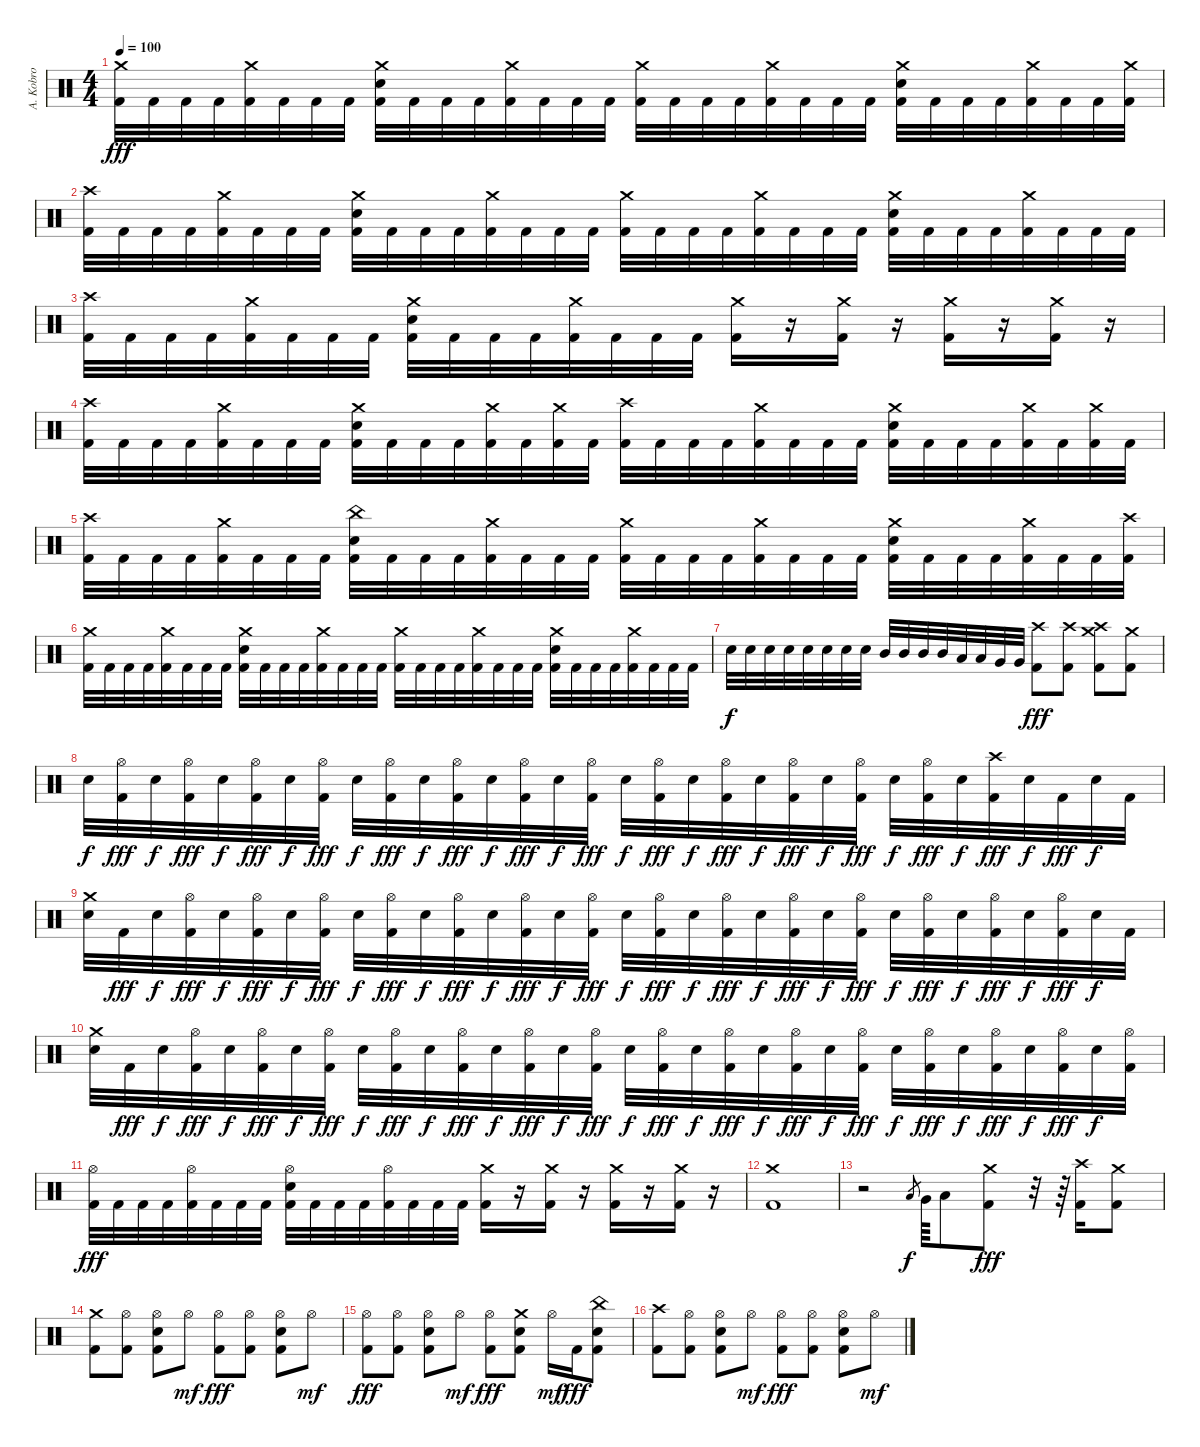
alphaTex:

\track ("A. Kobro" "A. Kobro") {instrument percussion}
\staff {score}
\articulation defaults
\ts (4 4)
\tempo 100
\clef neutral
\ks c
("Crash medium (hit)" "Kick (hit) 2").32{dy fff} "Kick (hit) 2".32 "Kick (hit) 2".32 "Kick (hit) 2".32 ("Crash medium (hit)" "Kick (hit) 2").32 "Kick (hit) 2".32 "Kick (hit) 2".32 "Kick (hit) 2".32 ("Crash medium (hit)" "Electric Snare (hit)" "Kick (hit) 2").32 "Kick (hit) 2".32 "Kick (hit) 2".32 "Kick (hit) 2".32 ("Crash medium (hit)" "Kick (hit) 2").32 "Kick (hit) 2".32 "Kick (hit) 2".32 "Kick (hit) 2".32 ("Crash medium (hit)" "Kick (hit) 2").32 "Kick (hit) 2".32 "Kick (hit) 2".32 "Kick (hit) 2".32 ("Crash medium (hit)" "Kick (hit) 2").32 "Kick (hit) 2".32 "Kick (hit) 2".32 "Kick (hit) 2".32 ("Crash medium (hit)" "Electric Snare (hit)" "Kick (hit) 2").32 "Kick (hit) 2".32 "Kick (hit) 2".32 "Kick (hit) 2".32 ("Crash medium (hit)" "Kick (hit) 2").32 "Kick (hit) 2".32 "Kick (hit) 2".32 ("Crash medium (hit)" "Kick (hit) 2").32 |
("Crash high (hit)" "Kick (hit) 2").32 "Kick (hit) 2".32 "Kick (hit) 2".32 "Kick (hit) 2".32 ("Crash medium (hit)" "Kick (hit) 2").32 "Kick (hit) 2".32 "Kick (hit) 2".32 "Kick (hit) 2".32 ("Crash medium (hit)" "Electric Snare (hit)" "Kick (hit) 2").32 "Kick (hit) 2".32 "Kick (hit) 2".32 "Kick (hit) 2".32 ("Crash medium (hit)" "Kick (hit) 2").32 "Kick (hit) 2".32 "Kick (hit) 2".32 "Kick (hit) 2".32 ("Crash medium (hit)" "Kick (hit) 2").32 "Kick (hit) 2".32 "Kick (hit) 2".32 "Kick (hit) 2".32 ("Crash medium (hit)" "Kick (hit) 2").32 "Kick (hit) 2".32 "Kick (hit) 2".32 "Kick (hit) 2".32 ("Crash medium (hit)" "Electric Snare (hit)" "Kick (hit) 2").32 "Kick (hit) 2".32 "Kick (hit) 2".32 "Kick (hit) 2".32 ("Crash medium (hit)" "Kick (hit) 2").32 "Kick (hit) 2".32 "Kick (hit) 2".32 "Kick (hit) 2".32 |
("Crash high (hit)" "Kick (hit) 2").32 "Kick (hit) 2".32 "Kick (hit) 2".32 "Kick (hit) 2".32 ("Crash medium (hit)" "Kick (hit) 2").32 "Kick (hit) 2".32 "Kick (hit) 2".32 "Kick (hit) 2".32 ("Crash medium (hit)" "Electric Snare (hit)" "Kick (hit) 2").32 "Kick (hit) 2".32 "Kick (hit) 2".32 "Kick (hit) 2".32 ("Crash medium (hit)" "Kick (hit) 2").32 "Kick (hit) 2".32 "Kick (hit) 2".32 "Kick (hit) 2".32 ("Crash medium (hit)" "Kick (hit) 2").16 r.16{volume 0} ("Crash medium (hit)" "Kick (hit) 2").16{volume 14} r.16{volume 0} ("Crash medium (hit)" "Kick (hit) 2").16{volume 14} r.16{volume 0} ("Crash medium (hit)" "Kick (hit) 2").16{volume 14} r.16{volume 0} |
("Crash high (hit)" "Kick (hit) 2").32{volume 14} "Kick (hit) 2".32 "Kick (hit) 2".32 "Kick (hit) 2".32 ("Crash medium (hit)" "Kick (hit) 2").32 "Kick (hit) 2".32 "Kick (hit) 2".32 "Kick (hit) 2".32 ("Crash medium (hit)" "Electric Snare (hit)" "Kick (hit) 2").32 "Kick (hit) 2".32 "Kick (hit) 2".32 "Kick (hit) 2".32 ("Crash medium (hit)" "Kick (hit) 2").32 "Kick (hit) 2".32 ("Crash medium (hit)" "Kick (hit) 2").32 "Kick (hit) 2".32 ("Crash high (hit)" "Kick (hit) 2").32 "Kick (hit) 2".32 "Kick (hit) 2".32 "Kick (hit) 2".32 ("Crash medium (hit)" "Kick (hit) 2").32 "Kick (hit) 2".32 "Kick (hit) 2".32 "Kick (hit) 2".32 ("Crash medium (hit)" "Electric Snare (hit)" "Kick (hit) 2").32 "Kick (hit) 2".32 "Kick (hit) 2".32 "Kick (hit) 2".32 ("Crash medium (hit)" "Kick (hit) 2").32 "Kick (hit) 2".32 ("Crash medium (hit)" "Kick (hit) 2").32 "Kick (hit) 2".32 |
("Crash high (hit)" "Kick (hit) 2").32 "Kick (hit) 2".32 "Kick (hit) 2".32 "Kick (hit) 2".32 ("Crash medium (hit)" "Kick (hit) 2").32 "Kick (hit) 2".32 "Kick (hit) 2".32 "Kick (hit) 2".32 ("China (hit)" "Electric Snare (hit)" "Kick (hit) 2").32 "Kick (hit) 2".32 "Kick (hit) 2".32 "Kick (hit) 2".32 ("Crash medium (hit)" "Kick (hit) 2").32 "Kick (hit) 2".32 "Kick (hit) 2".32 "Kick (hit) 2".32 ("Crash medium (hit)" "Kick (hit) 2").32 "Kick (hit) 2".32 "Kick (hit) 2".32 "Kick (hit) 2".32 ("Crash medium (hit)" "Kick (hit) 2").32 "Kick (hit) 2".32 "Kick (hit) 2".32 "Kick (hit) 2".32 ("Crash medium (hit)" "Electric Snare (hit)" "Kick (hit) 2").32 "Kick (hit) 2".32 "Kick (hit) 2".32 "Kick (hit) 2".32 ("Crash medium (hit)" "Kick (hit) 2").32 "Kick (hit) 2".32 "Kick (hit) 2".32 ("Crash high (hit)" "Kick (hit) 2").32 |
("Crash medium (hit)" "Kick (hit) 2").32 "Kick (hit) 2".32 "Kick (hit) 2".32 "Kick (hit) 2".32 ("Crash medium (hit)" "Kick (hit) 2").32 "Kick (hit) 2".32 "Kick (hit) 2".32 "Kick (hit) 2".32 ("Crash medium (hit)" "Electric Snare (hit)" "Kick (hit) 2").32 "Kick (hit) 2".32 "Kick (hit) 2".32 "Kick (hit) 2".32 ("Crash medium (hit)" "Kick (hit) 2").32 "Kick (hit) 2".32 "Kick (hit) 2".32 "Kick (hit) 2".32 ("Crash medium (hit)" "Kick (hit) 2").32 "Kick (hit) 2".32 "Kick (hit) 2".32 "Kick (hit) 2".32 ("Crash medium (hit)" "Kick (hit) 2").32 "Kick (hit) 2".32 "Kick (hit) 2".32 "Kick (hit) 2".32 ("Crash medium (hit)" "Electric Snare (hit)" "Kick (hit) 2").32 "Kick (hit) 2".32 "Kick (hit) 2".32 "Kick (hit) 2".32 ("Crash medium (hit)" "Kick (hit) 2").32 "Kick (hit) 2".32 "Kick (hit) 2".32 "Kick (hit) 2".32 |
"Electric Snare (hit)".32{dy f} "Electric Snare (hit)".32 "Electric Snare (hit)".32 "Electric Snare (hit)".32 "Electric Snare (hit)".32 "Electric Snare (hit)".32 "Electric Snare (hit)".32 "Electric Snare (hit)".32 "Mid Tom (hit)".32 "Mid Tom (hit)".32 "Mid Tom (hit)".32 "Mid Tom (hit)".32 "Low Tom (hit)".32 "Low Tom (hit)".32 "Very Low Tom (hit)".32 "Very Low Tom (hit)".32 ("Crash high (hit)" "Kick (hit) 2").8{dy fff} ("Crash high (hit)" "Kick (hit) 2").8 ("Crash medium (hit)" "Crash high (hit)" "Kick (hit) 2").8 ("Crash medium (hit)" "Kick (hit) 2").8 |
"Electric Snare (hit)".32{dy f} ("Hi-Hat (open)" "Kick (hit) 2").32{dy fff} "Electric Snare (hit)".32{dy f} ("Hi-Hat (open)" "Kick (hit) 2").32{dy fff} "Electric Snare (hit)".32{dy f} ("Hi-Hat (open)" "Kick (hit) 2").32{dy fff} "Electric Snare (hit)".32{dy f} ("Hi-Hat (open)" "Kick (hit) 2").32{dy fff} "Electric Snare (hit)".32{dy f} ("Hi-Hat (open)" "Kick (hit) 2").32{dy fff} "Electric Snare (hit)".32{dy f} ("Hi-Hat (open)" "Kick (hit) 2").32{dy fff} "Electric Snare (hit)".32{dy f} ("Hi-Hat (open)" "Kick (hit) 2").32{dy fff} "Electric Snare (hit)".32{dy f} ("Hi-Hat (open)" "Kick (hit) 2").32{dy fff} "Electric Snare (hit)".32{dy f} ("Hi-Hat (open)" "Kick (hit) 2").32{dy fff} "Electric Snare (hit)".32{dy f} ("Hi-Hat (open)" "Kick (hit) 2").32{dy fff} "Electric Snare (hit)".32{dy f} ("Hi-Hat (open)" "Kick (hit) 2").32{dy fff} "Electric Snare (hit)".32{dy f} ("Hi-Hat (open)" "Kick (hit) 2").32{dy fff} "Electric Snare (hit)".32{dy f} ("Hi-Hat (open)" "Kick (hit) 2").32{dy fff} "Electric Snare (hit)".32{dy f} ("Crash high (hit)" "Kick (hit) 2").32{dy fff} "Electric Snare (hit)".32{dy f} "Kick (hit) 2".32{dy fff} "Electric Snare (hit)".32{dy f} "Kick (hit) 2".32 |
("Crash medium (hit)" "Electric Snare (hit)").32 "Kick (hit) 2".32{dy fff} "Electric Snare (hit)".32{dy f} ("Hi-Hat (open)" "Kick (hit) 2").32{dy fff} "Electric Snare (hit)".32{dy f} ("Hi-Hat (open)" "Kick (hit) 2").32{dy fff} "Electric Snare (hit)".32{dy f} ("Hi-Hat (open)" "Kick (hit) 2").32{dy fff} "Electric Snare (hit)".32{dy f} ("Hi-Hat (open)" "Kick (hit) 2").32{dy fff} "Electric Snare (hit)".32{dy f} ("Hi-Hat (open)" "Kick (hit) 2").32{dy fff} "Electric Snare (hit)".32{dy f} ("Hi-Hat (open)" "Kick (hit) 2").32{dy fff} "Electric Snare (hit)".32{dy f} ("Hi-Hat (open)" "Kick (hit) 2").32{dy fff} "Electric Snare (hit)".32{dy f} ("Hi-Hat (open)" "Kick (hit) 2").32{dy fff} "Electric Snare (hit)".32{dy f} ("Hi-Hat (open)" "Kick (hit) 2").32{dy fff} "Electric Snare (hit)".32{dy f} ("Hi-Hat (open)" "Kick (hit) 2").32{dy fff} "Electric Snare (hit)".32{dy f} ("Hi-Hat (open)" "Kick (hit) 2").32{dy fff} "Electric Snare (hit)".32{dy f} ("Hi-Hat (open)" "Kick (hit) 2").32{dy fff} "Electric Snare (hit)".32{dy f} ("Hi-Hat (open)" "Kick (hit) 2").32{dy fff} "Electric Snare (hit)".32{dy f} ("Hi-Hat (open)" "Kick (hit) 2").32{dy fff} "Electric Snare (hit)".32{dy f} "Kick (hit) 2".32 |
("Crash medium (hit)" "Electric Snare (hit)").32 "Kick (hit) 2".32{dy fff} "Electric Snare (hit)".32{dy f} ("Hi-Hat (open)" "Kick (hit) 2").32{dy fff} "Electric Snare (hit)".32{dy f} ("Hi-Hat (open)" "Kick (hit) 2").32{dy fff} "Electric Snare (hit)".32{dy f} ("Hi-Hat (open)" "Kick (hit) 2").32{dy fff} "Electric Snare (hit)".32{dy f} ("Hi-Hat (open)" "Kick (hit) 2").32{dy fff} "Electric Snare (hit)".32{dy f} ("Hi-Hat (open)" "Kick (hit) 2").32{dy fff} "Electric Snare (hit)".32{dy f} ("Hi-Hat (open)" "Kick (hit) 2").32{dy fff} "Electric Snare (hit)".32{dy f} ("Hi-Hat (open)" "Kick (hit) 2").32{dy fff} "Electric Snare (hit)".32{dy f} ("Hi-Hat (open)" "Kick (hit) 2").32{dy fff} "Electric Snare (hit)".32{dy f} ("Hi-Hat (open)" "Kick (hit) 2").32{dy fff} "Electric Snare (hit)".32{dy f} ("Hi-Hat (open)" "Kick (hit) 2").32{dy fff} "Electric Snare (hit)".32{dy f} ("Hi-Hat (open)" "Kick (hit) 2").32{dy fff} "Electric Snare (hit)".32{dy f} ("Hi-Hat (open)" "Kick (hit) 2").32{dy fff} "Electric Snare (hit)".32{dy f} ("Hi-Hat (open)" "Kick (hit) 2").32{dy fff} "Electric Snare (hit)".32{dy f} ("Hi-Hat (open)" "Kick (hit) 2").32{dy fff} "Electric Snare (hit)".32{dy f} ("Hi-Hat (open)" "Kick (hit) 2").32 |
("Hi-Hat (open)" "Kick (hit) 2").32{dy fff} "Kick (hit) 2".32 "Kick (hit) 2".32 "Kick (hit) 2".32 ("Hi-Hat (open)" "Kick (hit) 2").32 "Kick (hit) 2".32 "Kick (hit) 2".32 "Kick (hit) 2".32 ("Hi-Hat (open)" "Electric Snare (hit)" "Kick (hit) 2").32 "Kick (hit) 2".32 "Kick (hit) 2".32 "Kick (hit) 2".32 ("Hi-Hat (open)" "Kick (hit) 2").32 "Kick (hit) 2".32 "Kick (hit) 2".32 "Kick (hit) 2".32 ("Crash medium (hit)" "Kick (hit) 2").16 r.16{volume 0} ("Crash medium (hit)" "Kick (hit) 2").16{volume 14} r.16{volume 0} ("Crash medium (hit)" "Kick (hit) 2").16{volume 14} r.16{volume 0} ("Crash medium (hit)" "Kick (hit) 2").16{volume 14} r.16{volume 0} |
("Crash medium (hit)" "Kick (hit) 2").1{volume 14} |
r.2 "Low Tom (hit)".8{gr dy f} "Very Low Tom (hit)".64 "Low Floor Tom (hit)".8 ("Crash medium (hit)" "Kick (hit) 2").8{dy fff} r.32 r.64 ("Crash high (hit)" "Kick (hit) 2").16 ("Crash medium (hit)" "Kick (hit) 2").8 |
("Crash medium (hit)" "Kick (hit) 2").8 ("Hi-Hat (open)" "Kick (hit) 2").8 ("Hi-Hat (open)" "Electric Snare (hit)" "Kick (hit) 2").8 "Hi-Hat (open)".8{dy mf} ("Hi-Hat (open)" "Kick (hit) 2").8{dy fff} ("Hi-Hat (open)" "Kick (hit) 2").8 ("Hi-Hat (open)" "Electric Snare (hit)" "Kick (hit) 2").8 "Hi-Hat (open)".8{dy mf} |
("Hi-Hat (open)" "Kick (hit) 2").8{dy fff} ("Hi-Hat (open)" "Kick (hit) 2").8 ("Hi-Hat (open)" "Electric Snare (hit)" "Kick (hit) 2").8 "Hi-Hat (open)".8{dy mf} ("Hi-Hat (open)" "Kick (hit) 2").8{dy fff} ("Crash medium (hit)" "Electric Snare (hit)" "Kick (hit) 2").8 "Hi-Hat (open)".16{dy mf} "Kick (hit) 2".16{dy fff} ("China (hit)" "Electric Snare (hit)" "Kick (hit) 2").8 |
("Crash high (hit)" "Kick (hit) 2").8 ("Hi-Hat (open)" "Kick (hit) 2").8 ("Hi-Hat (open)" "Electric Snare (hit)" "Kick (hit) 2").8 "Hi-Hat (open)".8{dy mf} ("Hi-Hat (open)" "Kick (hit) 2").8{dy fff} ("Hi-Hat (open)" "Kick (hit) 2").8 ("Hi-Hat (open)" "Electric Snare (hit)" "Kick (hit) 2").8 "Hi-Hat (open)".8{dy mf}
